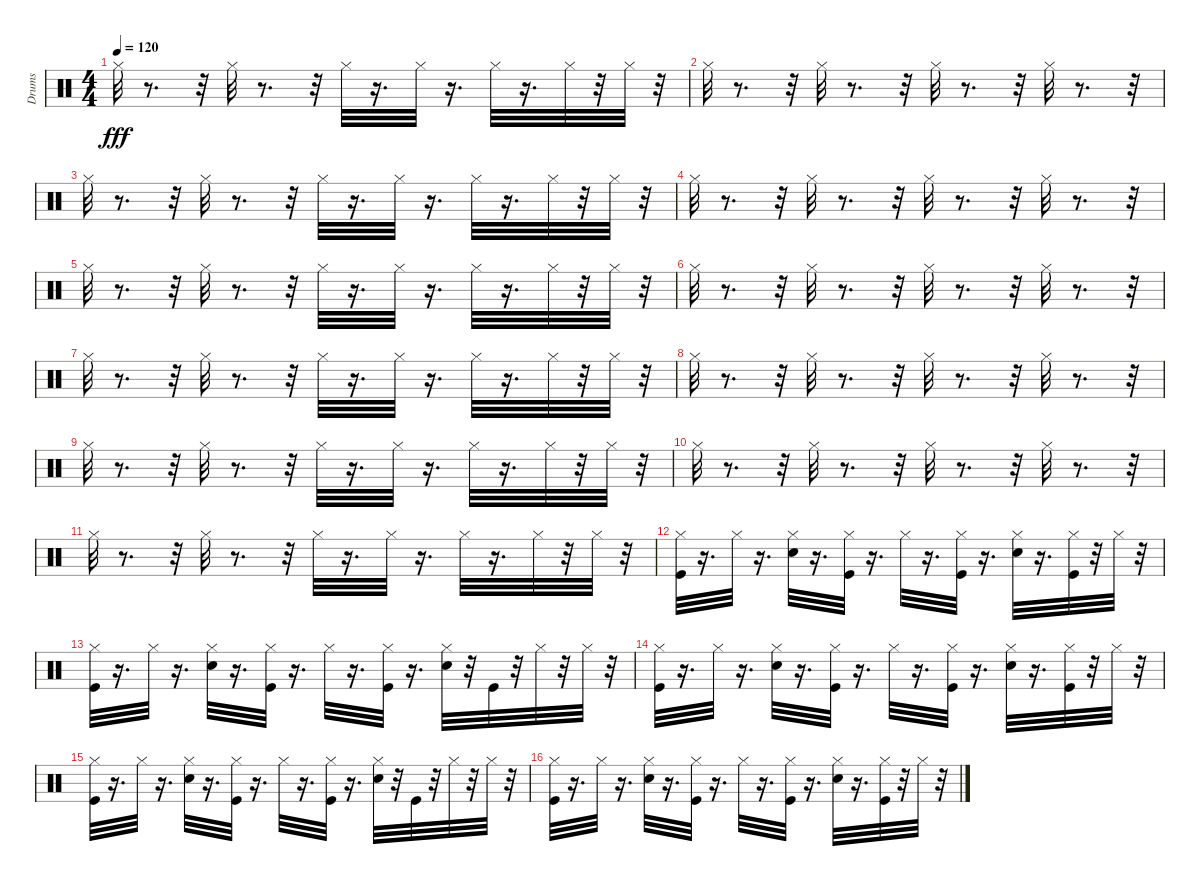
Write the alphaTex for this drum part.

\track ("Drums" "Drums") {solo instrument percussion}
\staff {score}
\articulation defaults
\ts (4 4)
\tempo 120
\clef neutral
\ks c "Hi-Hat (closed)".32{dy fff}
r.8{d} r.32 "Hi-Hat (closed)".32 r.8{d} r.32 "Hi-Hat (closed)".32 r.16{d} "Hi-Hat (closed)".32 r.16{d} "Hi-Hat (closed)".32 r.16{d} "Hi-Hat (closed)".32 r.32 "Hi-Hat (closed)".32 r.32 |
"Hi-Hat (closed)".32 r.8{d} r.32 "Hi-Hat (closed)".32 r.8{d} r.32 "Hi-Hat (closed)".32 r.8{d} r.32 "Hi-Hat (closed)".32 r.8{d} r.32 |
"Hi-Hat (closed)".32 r.8{d} r.32 "Hi-Hat (closed)".32 r.8{d} r.32 "Hi-Hat (closed)".32 r.16{d} "Hi-Hat (closed)".32 r.16{d} "Hi-Hat (closed)".32 r.16{d} "Hi-Hat (closed)".32 r.32 "Hi-Hat (closed)".32 r.32 |
"Hi-Hat (closed)".32 r.8{d} r.32 "Hi-Hat (closed)".32 r.8{d} r.32 "Hi-Hat (closed)".32 r.8{d} r.32 "Hi-Hat (closed)".32 r.8{d} r.32 |
"Hi-Hat (closed)".32 r.8{d} r.32 "Hi-Hat (closed)".32 r.8{d} r.32 "Hi-Hat (closed)".32 r.16{d} "Hi-Hat (closed)".32 r.16{d} "Hi-Hat (closed)".32 r.16{d} "Hi-Hat (closed)".32 r.32 "Hi-Hat (closed)".32 r.32 |
"Hi-Hat (closed)".32 r.8{d} r.32 "Hi-Hat (closed)".32 r.8{d} r.32 "Hi-Hat (closed)".32 r.8{d} r.32 "Hi-Hat (closed)".32 r.8{d} r.32 |
"Hi-Hat (closed)".32 r.8{d} r.32 "Hi-Hat (closed)".32 r.8{d} r.32 "Hi-Hat (closed)".32 r.16{d} "Hi-Hat (closed)".32 r.16{d} "Hi-Hat (closed)".32 r.16{d} "Hi-Hat (closed)".32 r.32 "Hi-Hat (closed)".32 r.32 |
"Hi-Hat (closed)".32 r.8{d} r.32 "Hi-Hat (closed)".32 r.8{d} r.32 "Hi-Hat (closed)".32 r.8{d} r.32 "Hi-Hat (closed)".32 r.8{d} r.32 |
"Hi-Hat (closed)".32 r.8{d} r.32 "Hi-Hat (closed)".32 r.8{d} r.32 "Hi-Hat (closed)".32 r.16{d} "Hi-Hat (closed)".32 r.16{d} "Hi-Hat (closed)".32 r.16{d} "Hi-Hat (closed)".32 r.32 "Hi-Hat (closed)".32 r.32 |
"Hi-Hat (closed)".32 r.8{d} r.32 "Hi-Hat (closed)".32 r.8{d} r.32 "Hi-Hat (closed)".32 r.8{d} r.32 "Hi-Hat (closed)".32 r.8{d} r.32 |
"Hi-Hat (closed)".32 r.8{d} r.32 "Hi-Hat (closed)".32 r.8{d} r.32 "Hi-Hat (closed)".32 r.16{d} "Hi-Hat (closed)".32 r.16{d} "Hi-Hat (closed)".32 r.16{d} "Hi-Hat (closed)".32 r.32 "Hi-Hat (closed)".32 r.32 |
("Kick (hit)" "Hi-Hat (closed)").32 r.16{d} "Hi-Hat (closed)".32 r.16{d} ("Snare (hit) 2" "Hi-Hat (closed)").32 r.16{d} ("Kick (hit)" "Hi-Hat (closed)").32 r.16{d} "Hi-Hat (closed)".32 r.16{d} ("Kick (hit)" "Hi-Hat (closed)").32 r.16{d} ("Snare (hit) 2" "Hi-Hat (closed)").32 r.16{d} ("Kick (hit)" "Hi-Hat (closed)").32 r.32 "Hi-Hat (closed)".32 r.32 |
("Kick (hit)" "Hi-Hat (closed)").32 r.16{d} "Hi-Hat (closed)".32 r.16{d} ("Snare (hit) 2" "Hi-Hat (closed)").32 r.16{d} ("Kick (hit)" "Hi-Hat (closed)").32 r.16{d} "Hi-Hat (closed)".32 r.16{d} ("Kick (hit)" "Hi-Hat (closed)").32 r.16{d} ("Snare (hit) 2" "Hi-Hat (closed)").32 r.32 "Kick (hit)".32 r.32 "Hi-Hat (closed)".32 r.32 "Hi-Hat (closed)".32 r.32 |
("Kick (hit)" "Hi-Hat (closed)").32 r.16{d} "Hi-Hat (closed)".32 r.16{d} ("Snare (hit) 2" "Hi-Hat (closed)").32 r.16{d} ("Kick (hit)" "Hi-Hat (closed)").32 r.16{d} "Hi-Hat (closed)".32 r.16{d} ("Kick (hit)" "Hi-Hat (closed)").32 r.16{d} ("Snare (hit) 2" "Hi-Hat (closed)").32 r.16{d} ("Kick (hit)" "Hi-Hat (closed)").32 r.32 "Hi-Hat (closed)".32 r.32 |
("Kick (hit)" "Hi-Hat (closed)").32 r.16{d} "Hi-Hat (closed)".32 r.16{d} ("Snare (hit) 2" "Hi-Hat (closed)").32 r.16{d} ("Kick (hit)" "Hi-Hat (closed)").32 r.16{d} "Hi-Hat (closed)".32 r.16{d} ("Kick (hit)" "Hi-Hat (closed)").32 r.16{d} ("Snare (hit) 2" "Hi-Hat (closed)").32 r.32 "Kick (hit)".32 r.32 "Hi-Hat (closed)".32 r.32 "Hi-Hat (closed)".32 r.32 |
("Kick (hit)" "Hi-Hat (closed)").32 r.16{d} "Hi-Hat (closed)".32 r.16{d} ("Snare (hit) 2" "Hi-Hat (closed)").32 r.16{d} ("Kick (hit)" "Hi-Hat (closed)").32 r.16{d} "Hi-Hat (closed)".32 r.16{d} ("Kick (hit)" "Hi-Hat (closed)").32 r.16{d} ("Snare (hit) 2" "Hi-Hat (closed)").32 r.16{d} ("Kick (hit)" "Hi-Hat (closed)").32 r.32 "Hi-Hat (closed)".32 r.32
